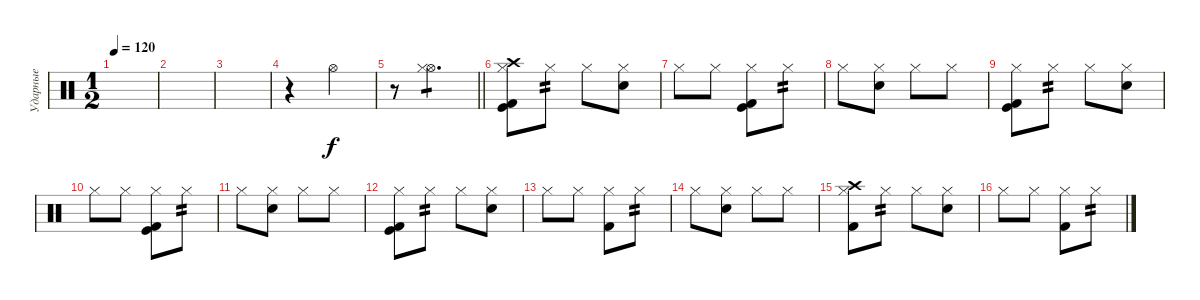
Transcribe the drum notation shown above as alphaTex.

\track ("Ударные" "Ударные") {instrument percussion}
\staff {score}
\articulation defaults
\ts (1 2)
\tempo 120
\clef neutral
\ks c
|
|
|
r.4 "Hi-Hat (open)".4 |
\barLineRight lightlight
r.8 ("Hi-Hat (open)" "Hi-Hat (closed)").4{d tp 1} |
("Kick (hit)" "Crash high (hit)" "Hi-Hat (closed)" "Kick (hit) 2").8 "Hi-Hat (closed)".8{tp 2} "Hi-Hat (closed)".8 ("Hi-Hat (closed)" "Snare (hit) 2").8 |
"Hi-Hat (closed)".8 "Hi-Hat (closed)".8 ("Kick (hit)" "Hi-Hat (closed)" "Kick (hit) 2").8 "Hi-Hat (closed)".8{tp 2} |
"Hi-Hat (closed)".8 ("Hi-Hat (closed)" "Snare (hit) 2").8 "Hi-Hat (closed)".8 "Hi-Hat (closed)".8 |
("Kick (hit)" "Hi-Hat (closed)" "Kick (hit) 2").8 "Hi-Hat (closed)".8{tp 2} "Hi-Hat (closed)".8 ("Hi-Hat (closed)" "Snare (hit) 2").8 |
"Hi-Hat (closed)".8 "Hi-Hat (closed)".8 ("Kick (hit)" "Hi-Hat (closed)" "Kick (hit) 2").8 "Hi-Hat (closed)".8{tp 2} |
"Hi-Hat (closed)".8 ("Hi-Hat (closed)" "Snare (hit) 2").8 "Hi-Hat (closed)".8 "Hi-Hat (closed)".8 |
("Kick (hit)" "Hi-Hat (closed)" "Kick (hit) 2").8 "Hi-Hat (closed)".8{tp 2} "Hi-Hat (closed)".8 ("Hi-Hat (closed)" "Snare (hit) 2").8 |
"Hi-Hat (closed)".8 "Hi-Hat (closed)".8 ("Hi-Hat (closed)" "Kick (hit) 2").8 "Hi-Hat (closed)".8{tp 2} |
"Hi-Hat (closed)".8 ("Hi-Hat (closed)" "Snare (hit) 2").8 "Hi-Hat (closed)".8 "Hi-Hat (closed)".8 |
("Crash high (hit)" "Hi-Hat (closed)" "Kick (hit) 2").8 "Hi-Hat (closed)".8{tp 2} "Hi-Hat (closed)".8 ("Hi-Hat (closed)" "Snare (hit) 2").8 |
"Hi-Hat (closed)".8 "Hi-Hat (closed)".8 ("Hi-Hat (closed)" "Kick (hit) 2").8 "Hi-Hat (closed)".8{tp 2}
